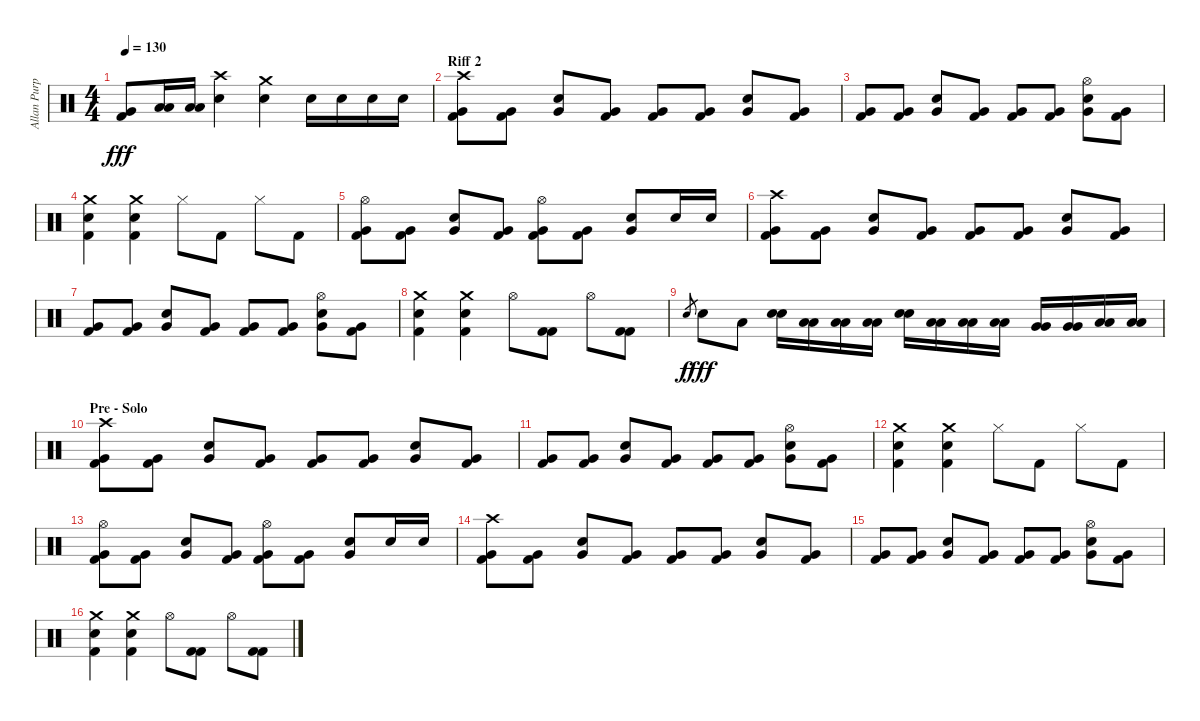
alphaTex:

\track ("Allan Purple" "Allan Purp") {instrument percussion}
\staff {score}
\articulation defaults
\ts (4 4)
\tempo 130
\clef neutral
\ks c
("Kick (hit) 2" "Very Low Tom (hit)").8{dy fff} ("Low Tom (hit)" "Low Tom (hit)").16 ("Low Tom (hit)" "Low Tom (hit)").16 ("Crash high (hit)" "Electric Snare (hit)").4 ("Crash medium (hit)" "Snare (hit) 2").4 "Electric Snare (hit)".16 "Electric Snare (hit)".16 "Electric Snare (hit)".16 "Electric Snare (hit)".16 |
\section ("" "Riff 2")
("Crash high (hit)" "Kick (hit) 2" "Very Low Tom (hit)").8 ("Kick (hit) 2" "Very Low Tom (hit)").8 ("Electric Snare (hit)" "Very Low Tom (hit)").8 ("Kick (hit) 2" "Very Low Tom (hit)").8 ("Kick (hit) 2" "Very Low Tom (hit)").8 ("Kick (hit) 2" "Very Low Tom (hit)").8 ("Electric Snare (hit)" "Very Low Tom (hit)").8 ("Kick (hit) 2" "Very Low Tom (hit)").8 |
("Kick (hit) 2" "Very Low Tom (hit)").8 ("Kick (hit) 2" "Very Low Tom (hit)").8 ("Electric Snare (hit)" "Very Low Tom (hit)").8 ("Kick (hit) 2" "Very Low Tom (hit)").8 ("Kick (hit) 2" "Very Low Tom (hit)").8 ("Kick (hit) 2" "Very Low Tom (hit)").8 ("Hi-Hat (open)" "Electric Snare (hit)" "Very Low Tom (hit)").8 ("Kick (hit) 2" "Very Low Tom (hit)").8 |
("Crash medium (hit)" "Kick (hit) 2" "Electric Snare (hit)").4 ("Crash medium (hit)" "Kick (hit) 2" "Electric Snare (hit)").4 "Hi-Hat (closed)".8 "Kick (hit) 2".8 "Hi-Hat (closed)".8 "Kick (hit) 2".8 |
("Hi-Hat (open)" "Kick (hit) 2" "Very Low Tom (hit)").8 ("Kick (hit) 2" "Very Low Tom (hit)").8 ("Electric Snare (hit)" "Very Low Tom (hit)").8 ("Kick (hit) 2" "Very Low Tom (hit)").8 ("Hi-Hat (open)" "Kick (hit) 2" "Very Low Tom (hit)").8 ("Kick (hit) 2" "Very Low Tom (hit)").8 ("Electric Snare (hit)" "Very Low Tom (hit)").8 "Electric Snare (hit)".16 "Electric Snare (hit)".16 |
("Crash high (hit)" "Kick (hit) 2" "Very Low Tom (hit)").8 ("Kick (hit) 2" "Very Low Tom (hit)").8 ("Electric Snare (hit)" "Very Low Tom (hit)").8 ("Kick (hit) 2" "Very Low Tom (hit)").8 ("Kick (hit) 2" "Very Low Tom (hit)").8 ("Kick (hit) 2" "Very Low Tom (hit)").8 ("Electric Snare (hit)" "Very Low Tom (hit)").8 ("Kick (hit) 2" "Very Low Tom (hit)").8 |
("Kick (hit) 2" "Very Low Tom (hit)").8 ("Kick (hit) 2" "Very Low Tom (hit)").8 ("Electric Snare (hit)" "Very Low Tom (hit)").8 ("Kick (hit) 2" "Very Low Tom (hit)").8 ("Kick (hit) 2" "Very Low Tom (hit)").8 ("Kick (hit) 2" "Very Low Tom (hit)").8 ("Hi-Hat (open)" "Electric Snare (hit)" "Very Low Tom (hit)").8 ("Kick (hit) 2" "Very Low Tom (hit)").8 |
("Crash medium (hit)" "Kick (hit) 2" "Electric Snare (hit)").4 ("Crash medium (hit)" "Kick (hit) 2" "Electric Snare (hit)").4 "Hi-Hat (open)".8 ("Kick (hit) 2" "Kick (hit) 2").8 "Hi-Hat (open)".8 ("Kick (hit) 2" "Kick (hit) 2").8 |
"Snare (hit) 2".8{gr dy f} "Snare (hit) 2".8{dy fff} "Low Tom (hit)".8 ("Electric Snare (hit)" "Electric Snare (hit)").16 ("Low Tom (hit)" "Low Tom (hit)").16 ("Low Tom (hit)" "Low Tom (hit)").16 ("Low Tom (hit)" "Low Tom (hit)").16 ("Electric Snare (hit)" "Electric Snare (hit)").16 ("Low Tom (hit)" "Low Tom (hit)").16 ("Low Tom (hit)" "Low Tom (hit)").16 ("Low Tom (hit)" "Low Tom (hit)").16 ("Very Low Tom (hit)" "Very Low Tom (hit)").16 ("Very Low Tom (hit)" "Very Low Tom (hit)").16 ("Low Floor Tom (hit)" "Low Floor Tom (hit)").16 ("Low Floor Tom (hit)" "Low Floor Tom (hit)").16 |
\section ("" "Pre - Solo")
("Crash high (hit)" "Kick (hit) 2" "Very Low Tom (hit)").8 ("Kick (hit) 2" "Very Low Tom (hit)").8 ("Electric Snare (hit)" "Very Low Tom (hit)").8 ("Kick (hit) 2" "Very Low Tom (hit)").8 ("Kick (hit) 2" "Very Low Tom (hit)").8 ("Kick (hit) 2" "Very Low Tom (hit)").8 ("Electric Snare (hit)" "Very Low Tom (hit)").8 ("Kick (hit) 2" "Very Low Tom (hit)").8 |
("Kick (hit) 2" "Very Low Tom (hit)").8 ("Kick (hit) 2" "Very Low Tom (hit)").8 ("Electric Snare (hit)" "Very Low Tom (hit)").8 ("Kick (hit) 2" "Very Low Tom (hit)").8 ("Kick (hit) 2" "Very Low Tom (hit)").8 ("Kick (hit) 2" "Very Low Tom (hit)").8 ("Hi-Hat (open)" "Electric Snare (hit)" "Very Low Tom (hit)").8 ("Kick (hit) 2" "Very Low Tom (hit)").8 |
("Crash medium (hit)" "Kick (hit) 2" "Electric Snare (hit)").4 ("Crash medium (hit)" "Kick (hit) 2" "Electric Snare (hit)").4 "Hi-Hat (closed)".8 "Kick (hit) 2".8 "Hi-Hat (closed)".8 "Kick (hit) 2".8 |
("Hi-Hat (open)" "Kick (hit) 2" "Very Low Tom (hit)").8 ("Kick (hit) 2" "Very Low Tom (hit)").8 ("Electric Snare (hit)" "Very Low Tom (hit)").8 ("Kick (hit) 2" "Very Low Tom (hit)").8 ("Hi-Hat (open)" "Kick (hit) 2" "Very Low Tom (hit)").8 ("Kick (hit) 2" "Very Low Tom (hit)").8 ("Electric Snare (hit)" "Very Low Tom (hit)").8 "Electric Snare (hit)".16 "Electric Snare (hit)".16 |
("Crash high (hit)" "Kick (hit) 2" "Very Low Tom (hit)").8 ("Kick (hit) 2" "Very Low Tom (hit)").8 ("Electric Snare (hit)" "Very Low Tom (hit)").8 ("Kick (hit) 2" "Very Low Tom (hit)").8 ("Kick (hit) 2" "Very Low Tom (hit)").8 ("Kick (hit) 2" "Very Low Tom (hit)").8 ("Electric Snare (hit)" "Very Low Tom (hit)").8 ("Kick (hit) 2" "Very Low Tom (hit)").8 |
("Kick (hit) 2" "Very Low Tom (hit)").8 ("Kick (hit) 2" "Very Low Tom (hit)").8 ("Electric Snare (hit)" "Very Low Tom (hit)").8 ("Kick (hit) 2" "Very Low Tom (hit)").8 ("Kick (hit) 2" "Very Low Tom (hit)").8 ("Kick (hit) 2" "Very Low Tom (hit)").8 ("Hi-Hat (open)" "Electric Snare (hit)" "Very Low Tom (hit)").8 ("Kick (hit) 2" "Very Low Tom (hit)").8 |
("Crash medium (hit)" "Kick (hit) 2" "Electric Snare (hit)").4 ("Crash medium (hit)" "Kick (hit) 2" "Electric Snare (hit)").4 "Hi-Hat (open)".8 ("Kick (hit) 2" "Kick (hit) 2").8 "Hi-Hat (open)".8 ("Kick (hit) 2" "Kick (hit) 2").8
